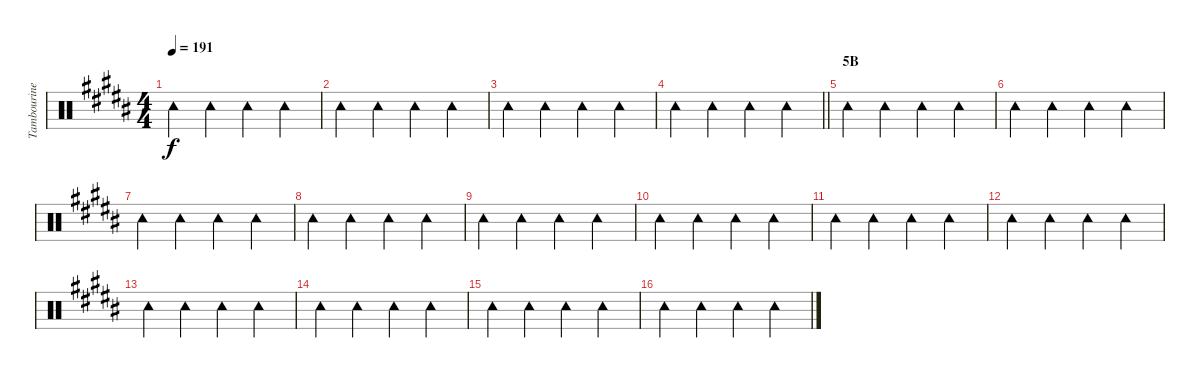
\track ("Tambourine" "Tambourine") {instrument percussion}
\staff {score}
\articulation defaults
\ts (4 4)
\tempo 191
\clef neutral
\ks b "Tambourine (hit)".4{dy f} "Tambourine (hit)".4 "Tambourine (hit)".4 "Tambourine (hit)".4
|
"Tambourine (hit)".4 "Tambourine (hit)".4 "Tambourine (hit)".4 "Tambourine (hit)".4 |
"Tambourine (hit)".4 "Tambourine (hit)".4 "Tambourine (hit)".4 "Tambourine (hit)".4 |
\barLineRight lightlight "Tambourine (hit)".4 "Tambourine (hit)".4 "Tambourine (hit)".4 "Tambourine (hit)".4
|
\section ("" "5B")
"Tambourine (hit)".4 "Tambourine (hit)".4 "Tambourine (hit)".4 "Tambourine (hit)".4 |
"Tambourine (hit)".4 "Tambourine (hit)".4 "Tambourine (hit)".4 "Tambourine (hit)".4 |
"Tambourine (hit)".4 "Tambourine (hit)".4 "Tambourine (hit)".4 "Tambourine (hit)".4 |
"Tambourine (hit)".4 "Tambourine (hit)".4 "Tambourine (hit)".4 "Tambourine (hit)".4 |
"Tambourine (hit)".4 "Tambourine (hit)".4 "Tambourine (hit)".4 "Tambourine (hit)".4 |
"Tambourine (hit)".4 "Tambourine (hit)".4 "Tambourine (hit)".4 "Tambourine (hit)".4 |
"Tambourine (hit)".4 "Tambourine (hit)".4 "Tambourine (hit)".4 "Tambourine (hit)".4 |
"Tambourine (hit)".4 "Tambourine (hit)".4 "Tambourine (hit)".4 "Tambourine (hit)".4 |
"Tambourine (hit)".4 "Tambourine (hit)".4 "Tambourine (hit)".4 "Tambourine (hit)".4 |
"Tambourine (hit)".4 "Tambourine (hit)".4 "Tambourine (hit)".4 "Tambourine (hit)".4 |
"Tambourine (hit)".4 "Tambourine (hit)".4 "Tambourine (hit)".4 "Tambourine (hit)".4 |
"Tambourine (hit)".4 "Tambourine (hit)".4 "Tambourine (hit)".4 "Tambourine (hit)".4
